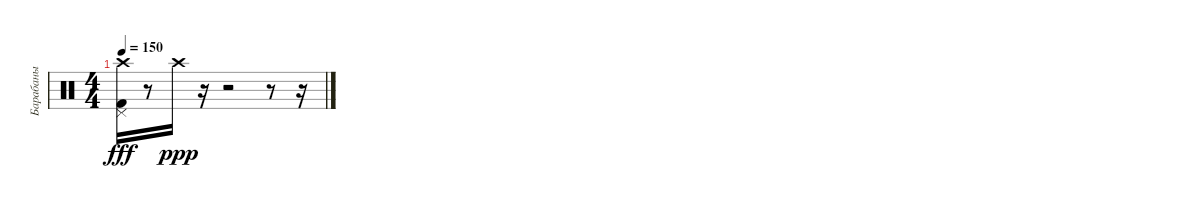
\track ("Барабаны" "Барабаны") {instrument percussion}
\staff {score}
\articulation defaults
\ts (4 4)
\tempo 150
\clef neutral
\ks c
("Kick (hit) 2" "Pedal Hi-Hat (hit)" "Crash high (hit)").16{dy fff} r.8 "Crash high (hit)".16{dy ppp} r.16 r.2 r.8 r.16
